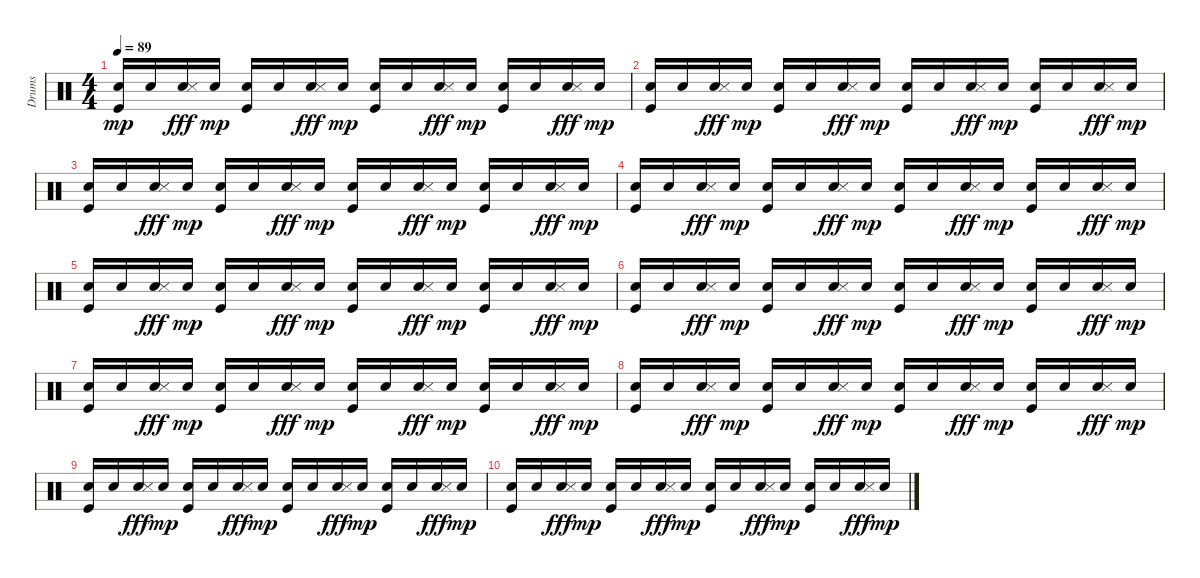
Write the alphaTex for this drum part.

\track ("Drums" "Drums") {instrument percussion}
\staff {score}
\articulation defaults
\ts (4 4)
\tempo 89
\clef neutral
\ks c
("Snare (hit) 2" "Kick (hit)").16{dy mp} "Snare (hit) 2".16 ("Snare (hit) 2" "Snare (side stick) 3").16{dy fff} "Snare (hit) 2".16{dy mp} ("Snare (hit) 2" "Kick (hit)").16 "Snare (hit) 2".16 ("Snare (hit) 2" "Snare (side stick) 3").16{dy fff} "Snare (hit) 2".16{dy mp} ("Snare (hit) 2" "Kick (hit)").16 "Snare (hit) 2".16 ("Snare (hit) 2" "Snare (side stick) 3").16{dy fff} "Snare (hit) 2".16{dy mp} ("Snare (hit) 2" "Kick (hit)").16 "Snare (hit) 2".16 ("Snare (hit) 2" "Snare (side stick) 3").16{dy fff} "Snare (hit) 2".16{dy mp} |
("Snare (hit) 2" "Kick (hit)").16 "Snare (hit) 2".16 ("Snare (hit) 2" "Snare (side stick) 3").16{dy fff} "Snare (hit) 2".16{dy mp} ("Snare (hit) 2" "Kick (hit)").16 "Snare (hit) 2".16 ("Snare (hit) 2" "Snare (side stick) 3").16{dy fff} "Snare (hit) 2".16{dy mp} ("Snare (hit) 2" "Kick (hit)").16 "Snare (hit) 2".16 ("Snare (hit) 2" "Snare (side stick) 3").16{dy fff} "Snare (hit) 2".16{dy mp} ("Snare (hit) 2" "Kick (hit)").16 "Snare (hit) 2".16 ("Snare (hit) 2" "Snare (side stick) 3").16{dy fff} "Snare (hit) 2".16{dy mp} |
("Snare (hit) 2" "Kick (hit)").16 "Snare (hit) 2".16 ("Snare (hit) 2" "Snare (side stick) 3").16{dy fff} "Snare (hit) 2".16{dy mp} ("Snare (hit) 2" "Kick (hit)").16 "Snare (hit) 2".16 ("Snare (hit) 2" "Snare (side stick) 3").16{dy fff} "Snare (hit) 2".16{dy mp} ("Snare (hit) 2" "Kick (hit)").16 "Snare (hit) 2".16 ("Snare (hit) 2" "Snare (side stick) 3").16{dy fff} "Snare (hit) 2".16{dy mp} ("Snare (hit) 2" "Kick (hit)").16 "Snare (hit) 2".16 ("Snare (hit) 2" "Snare (side stick) 3").16{dy fff} "Snare (hit) 2".16{dy mp} |
("Snare (hit) 2" "Kick (hit)").16 "Snare (hit) 2".16 ("Snare (hit) 2" "Snare (side stick) 3").16{dy fff} "Snare (hit) 2".16{dy mp} ("Snare (hit) 2" "Kick (hit)").16 "Snare (hit) 2".16 ("Snare (hit) 2" "Snare (side stick) 3").16{dy fff} "Snare (hit) 2".16{dy mp} ("Snare (hit) 2" "Kick (hit)").16 "Snare (hit) 2".16 ("Snare (hit) 2" "Snare (side stick) 3").16{dy fff} "Snare (hit) 2".16{dy mp} ("Snare (hit) 2" "Kick (hit)").16 "Snare (hit) 2".16 ("Snare (hit) 2" "Snare (side stick) 3").16{dy fff} "Snare (hit) 2".16{dy mp} |
("Snare (hit) 2" "Kick (hit)").16 "Snare (hit) 2".16 ("Snare (hit) 2" "Snare (side stick) 3").16{dy fff} "Snare (hit) 2".16{dy mp} ("Snare (hit) 2" "Kick (hit)").16 "Snare (hit) 2".16 ("Snare (hit) 2" "Snare (side stick) 3").16{dy fff} "Snare (hit) 2".16{dy mp} ("Snare (hit) 2" "Kick (hit)").16 "Snare (hit) 2".16 ("Snare (hit) 2" "Snare (side stick) 3").16{dy fff} "Snare (hit) 2".16{dy mp} ("Snare (hit) 2" "Kick (hit)").16 "Snare (hit) 2".16 ("Snare (hit) 2" "Snare (side stick) 3").16{dy fff} "Snare (hit) 2".16{dy mp} |
("Snare (hit) 2" "Kick (hit)").16 "Snare (hit) 2".16 ("Snare (hit) 2" "Snare (side stick) 3").16{dy fff} "Snare (hit) 2".16{dy mp} ("Snare (hit) 2" "Kick (hit)").16 "Snare (hit) 2".16 ("Snare (hit) 2" "Snare (side stick) 3").16{dy fff} "Snare (hit) 2".16{dy mp} ("Snare (hit) 2" "Kick (hit)").16 "Snare (hit) 2".16 ("Snare (hit) 2" "Snare (side stick) 3").16{dy fff} "Snare (hit) 2".16{dy mp} ("Snare (hit) 2" "Kick (hit)").16 "Snare (hit) 2".16 ("Snare (hit) 2" "Snare (side stick) 3").16{dy fff} "Snare (hit) 2".16{dy mp} |
("Snare (hit) 2" "Kick (hit)").16 "Snare (hit) 2".16 ("Snare (hit) 2" "Snare (side stick) 3").16{dy fff} "Snare (hit) 2".16{dy mp} ("Snare (hit) 2" "Kick (hit)").16 "Snare (hit) 2".16 ("Snare (hit) 2" "Snare (side stick) 3").16{dy fff} "Snare (hit) 2".16{dy mp} ("Snare (hit) 2" "Kick (hit)").16 "Snare (hit) 2".16 ("Snare (hit) 2" "Snare (side stick) 3").16{dy fff} "Snare (hit) 2".16{dy mp} ("Snare (hit) 2" "Kick (hit)").16 "Snare (hit) 2".16 ("Snare (hit) 2" "Snare (side stick) 3").16{dy fff} "Snare (hit) 2".16{dy mp} |
("Snare (hit) 2" "Kick (hit)").16 "Snare (hit) 2".16 ("Snare (hit) 2" "Snare (side stick) 3").16{dy fff} "Snare (hit) 2".16{dy mp} ("Snare (hit) 2" "Kick (hit)").16 "Snare (hit) 2".16 ("Snare (hit) 2" "Snare (side stick) 3").16{dy fff} "Snare (hit) 2".16{dy mp} ("Snare (hit) 2" "Kick (hit)").16 "Snare (hit) 2".16 ("Snare (hit) 2" "Snare (side stick) 3").16{dy fff} "Snare (hit) 2".16{dy mp} ("Snare (hit) 2" "Kick (hit)").16 "Snare (hit) 2".16 ("Snare (hit) 2" "Snare (side stick) 3").16{dy fff} "Snare (hit) 2".16{dy mp} |
("Snare (hit) 2" "Kick (hit)").16 "Snare (hit) 2".16 ("Snare (hit) 2" "Snare (side stick) 3").16{dy fff} "Snare (hit) 2".16{dy mp} ("Snare (hit) 2" "Kick (hit)").16 "Snare (hit) 2".16 ("Snare (hit) 2" "Snare (side stick) 3").16{dy fff} "Snare (hit) 2".16{dy mp} ("Snare (hit) 2" "Kick (hit)").16 "Snare (hit) 2".16 ("Snare (hit) 2" "Snare (side stick) 3").16{dy fff} "Snare (hit) 2".16{dy mp} ("Snare (hit) 2" "Kick (hit)").16 "Snare (hit) 2".16 ("Snare (hit) 2" "Snare (side stick) 3").16{dy fff} "Snare (hit) 2".16{dy mp} |
("Snare (hit) 2" "Kick (hit)").16 "Snare (hit) 2".16 ("Snare (hit) 2" "Snare (side stick) 3").16{dy fff} "Snare (hit) 2".16{dy mp} ("Snare (hit) 2" "Kick (hit)").16 "Snare (hit) 2".16 ("Snare (hit) 2" "Snare (side stick) 3").16{dy fff} "Snare (hit) 2".16{dy mp} ("Snare (hit) 2" "Kick (hit)").16 "Snare (hit) 2".16 ("Snare (hit) 2" "Snare (side stick) 3").16{dy fff} "Snare (hit) 2".16{dy mp} ("Snare (hit) 2" "Kick (hit)").16 "Snare (hit) 2".16 ("Snare (hit) 2" "Snare (side stick) 3").16{dy fff} "Snare (hit) 2".16{dy mp}
